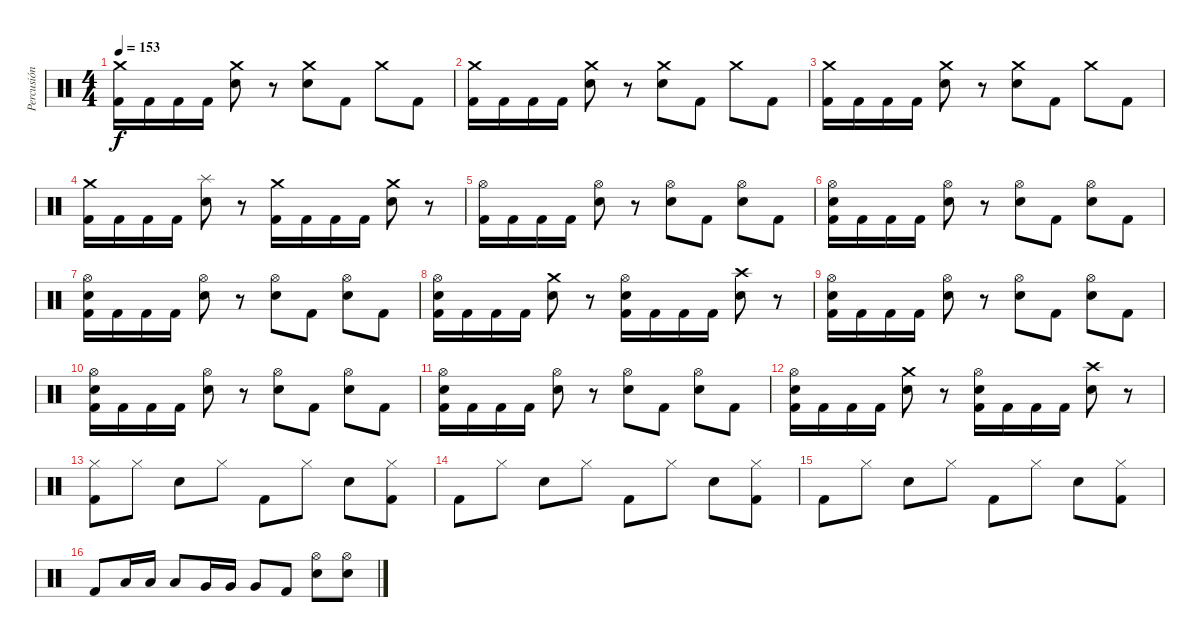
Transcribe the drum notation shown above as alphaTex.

\track ("Percusión" "Percusión") {instrument percussion}
\staff {score}
\articulation defaults
\ts (4 4)
\tempo 153
\clef neutral
\ks c
("Crash medium (hit)" "Kick (hit) 2").16{dy f} "Kick (hit) 2".16 "Kick (hit) 2".16 "Kick (hit) 2".16 ("Crash medium (hit)" "Electric Snare (hit)").8 r.8 ("Crash medium (hit)" "Electric Snare (hit)").8 "Kick (hit) 2".8 "Crash medium (hit)".8 "Kick (hit) 2".8 |
("Crash medium (hit)" "Kick (hit) 2").16 "Kick (hit) 2".16 "Kick (hit) 2".16 "Kick (hit) 2".16 ("Crash medium (hit)" "Electric Snare (hit)").8 r.8 ("Crash medium (hit)" "Electric Snare (hit)").8 "Kick (hit) 2".8 "Crash medium (hit)".8 "Kick (hit) 2".8 |
("Crash medium (hit)" "Kick (hit) 2").16 "Kick (hit) 2".16 "Kick (hit) 2".16 "Kick (hit) 2".16 ("Crash medium (hit)" "Electric Snare (hit)").8 r.8 ("Crash medium (hit)" "Electric Snare (hit)").8 "Kick (hit) 2".8 "Crash medium (hit)".8 "Kick (hit) 2".8 |
("Crash medium (hit)" "Kick (hit) 2").16 "Kick (hit) 2".16 "Kick (hit) 2".16 "Kick (hit) 2".16 ("Splash (hit)" "Electric Snare (hit)").8 r.8 ("Crash medium (hit)" "Kick (hit) 2").16 "Kick (hit) 2".16 "Kick (hit) 2".16 "Kick (hit) 2".16 ("Crash medium (hit)" "Electric Snare (hit)").8 r.8 |
("Hi-Hat (open)" "Kick (hit) 2").16 "Kick (hit) 2".16 "Kick (hit) 2".16 "Kick (hit) 2".16 ("Hi-Hat (open)" "Electric Snare (hit)").8 r.8 ("Hi-Hat (open)" "Electric Snare (hit)").8 "Kick (hit) 2".8 ("Hi-Hat (open)" "Electric Snare (hit)").8 "Kick (hit) 2".8 |
("Hi-Hat (open)" "Electric Snare (hit)" "Kick (hit) 2").16 "Kick (hit) 2".16 "Kick (hit) 2".16 "Kick (hit) 2".16 ("Hi-Hat (open)" "Electric Snare (hit)").8 r.8 ("Hi-Hat (open)" "Electric Snare (hit)").8 "Kick (hit) 2".8 ("Hi-Hat (open)" "Electric Snare (hit)").8 "Kick (hit) 2".8 |
("Hi-Hat (open)" "Electric Snare (hit)" "Kick (hit) 2").16 "Kick (hit) 2".16 "Kick (hit) 2".16 "Kick (hit) 2".16 ("Hi-Hat (open)" "Electric Snare (hit)").8 r.8 ("Hi-Hat (open)" "Electric Snare (hit)").8 "Kick (hit) 2".8 ("Hi-Hat (open)" "Electric Snare (hit)").8 "Kick (hit) 2".8 |
("Hi-Hat (open)" "Electric Snare (hit)" "Kick (hit) 2").16 "Kick (hit) 2".16 "Kick (hit) 2".16 "Kick (hit) 2".16 ("Crash medium (hit)" "Electric Snare (hit)").8 r.8 ("Hi-Hat (open)" "Electric Snare (hit)" "Kick (hit) 2").16 "Kick (hit) 2".16 "Kick (hit) 2".16 "Kick (hit) 2".16 ("Crash high (hit)" "Electric Snare (hit)").8 r.8 |
("Hi-Hat (open)" "Electric Snare (hit)" "Kick (hit) 2").16 "Kick (hit) 2".16 "Kick (hit) 2".16 "Kick (hit) 2".16 ("Hi-Hat (open)" "Electric Snare (hit)").8 r.8 ("Hi-Hat (open)" "Electric Snare (hit)").8 "Kick (hit) 2".8 ("Hi-Hat (open)" "Electric Snare (hit)").8 "Kick (hit) 2".8 |
("Hi-Hat (open)" "Electric Snare (hit)" "Kick (hit) 2").16 "Kick (hit) 2".16 "Kick (hit) 2".16 "Kick (hit) 2".16 ("Hi-Hat (open)" "Electric Snare (hit)").8 r.8 ("Hi-Hat (open)" "Electric Snare (hit)").8 "Kick (hit) 2".8 ("Hi-Hat (open)" "Electric Snare (hit)").8 "Kick (hit) 2".8 |
("Hi-Hat (open)" "Electric Snare (hit)" "Kick (hit) 2").16 "Kick (hit) 2".16 "Kick (hit) 2".16 "Kick (hit) 2".16 ("Hi-Hat (open)" "Electric Snare (hit)").8 r.8 ("Hi-Hat (open)" "Electric Snare (hit)").8 "Kick (hit) 2".8 ("Hi-Hat (open)" "Electric Snare (hit)").8 "Kick (hit) 2".8 |
("Hi-Hat (open)" "Electric Snare (hit)" "Kick (hit) 2").16 "Kick (hit) 2".16 "Kick (hit) 2".16 "Kick (hit) 2".16 ("Crash medium (hit)" "Electric Snare (hit)").8 r.8 ("Hi-Hat (open)" "Electric Snare (hit)" "Kick (hit) 2").16 "Kick (hit) 2".16 "Kick (hit) 2".16 "Kick (hit) 2".16 ("Crash high (hit)" "Electric Snare (hit)").8 r.8 |
("Hi-Hat (closed)" "Kick (hit) 2").8 "Hi-Hat (closed)".8 "Electric Snare (hit)".8 "Hi-Hat (closed)".8 "Kick (hit) 2".8 "Hi-Hat (closed)".8 "Electric Snare (hit)".8 ("Hi-Hat (closed)" "Kick (hit) 2").8 |
"Kick (hit) 2".8 "Hi-Hat (closed)".8 "Electric Snare (hit)".8 "Hi-Hat (closed)".8 "Kick (hit) 2".8 "Hi-Hat (closed)".8 "Electric Snare (hit)".8 ("Hi-Hat (closed)" "Kick (hit) 2").8 |
"Kick (hit) 2".8 "Hi-Hat (closed)".8 "Electric Snare (hit)".8 "Hi-Hat (closed)".8 "Kick (hit) 2".8 "Hi-Hat (closed)".8 "Electric Snare (hit)".8 ("Hi-Hat (closed)" "Kick (hit) 2").8 |
"Kick (hit) 2".8 "Low Tom (hit)".16 "Low Tom (hit)".16 "Low Tom (hit)".8 "Very Low Tom (hit)".16 "Very Low Tom (hit)".16 "Very Low Tom (hit)".8 "Kick (hit) 2".8 ("Hi-Hat (open)" "Electric Snare (hit)").8 ("Hi-Hat (open)" "Electric Snare (hit)").8
